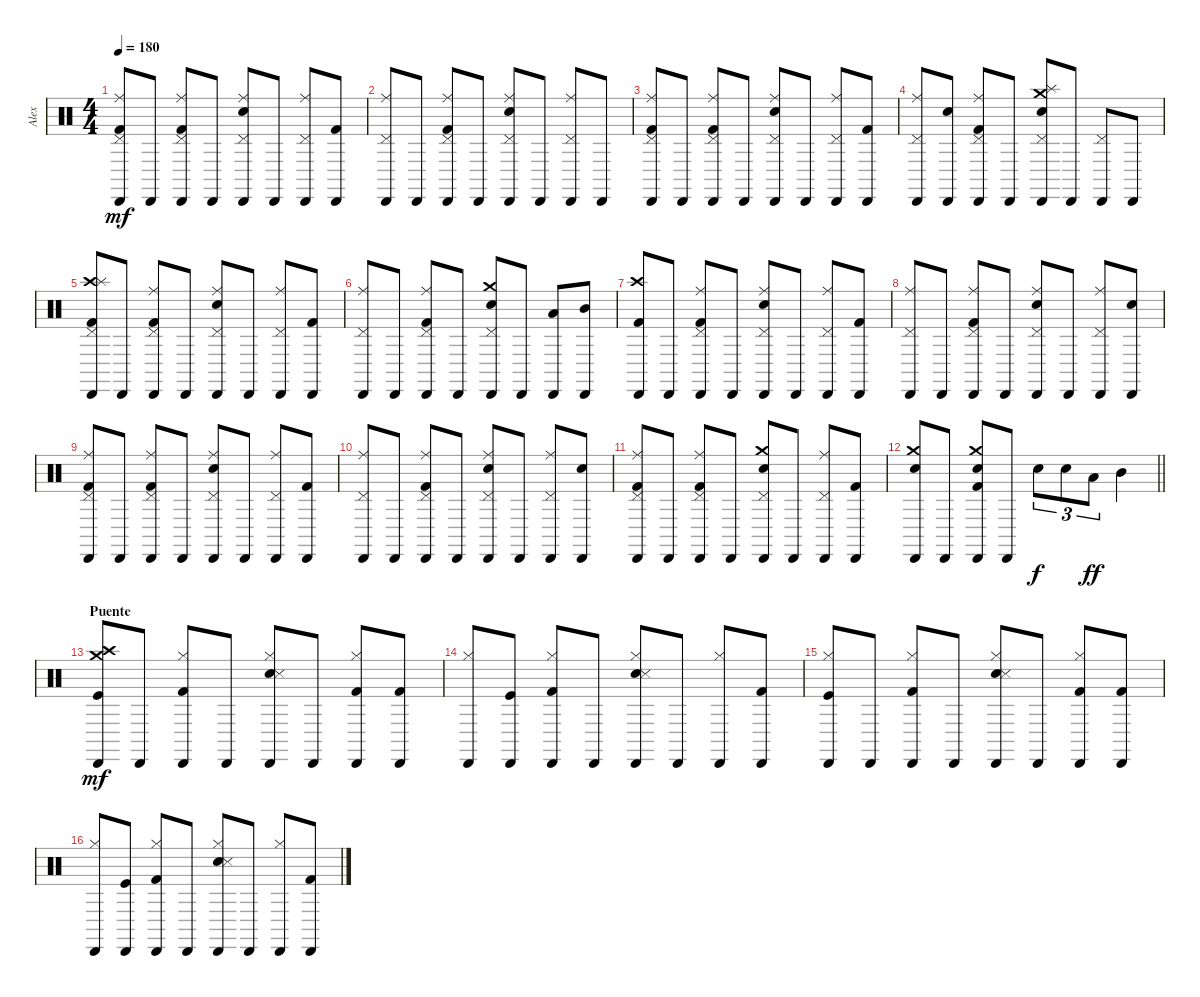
\track ("Alex" "Alex") {instrument percussion}
\staff {score}
\articulation defaults
\ts (4 4)
\tempo 180
\clef neutral
\ks c
("Ride (middle)" "Pedal Hi-Hat (hit)" "Kick (hit) 2" "Cabasa (hit)").8{dy mf} "Cabasa (hit)".8 ("Ride (middle)" "Pedal Hi-Hat (hit)" "Kick (hit) 2" "Cabasa (hit)").8 "Cabasa (hit)".8 ("Ride (middle)" "Pedal Hi-Hat (hit)" "Snare (hit) 2" "Cabasa (hit)").8 "Cabasa (hit)".8 ("Ride (middle)" "Pedal Hi-Hat (hit)" "Cabasa (hit)").8 ("Kick (hit) 2" "Cabasa (hit)").8 |
("Ride (middle)" "Pedal Hi-Hat (hit)" "Cabasa (hit)").8 "Cabasa (hit)".8 ("Ride (middle)" "Pedal Hi-Hat (hit)" "Kick (hit) 2" "Cabasa (hit)").8 "Cabasa (hit)".8 ("Ride (middle)" "Pedal Hi-Hat (hit)" "Snare (hit) 2" "Cabasa (hit)").8 "Cabasa (hit)".8 ("Ride (middle)" "Pedal Hi-Hat (hit)" "Cabasa (hit)").8 "Cabasa (hit)".8 |
("Ride (middle)" "Pedal Hi-Hat (hit)" "Kick (hit) 2" "Cabasa (hit)").8 "Cabasa (hit)".8 ("Ride (middle)" "Pedal Hi-Hat (hit)" "Kick (hit) 2" "Cabasa (hit)").8 "Cabasa (hit)".8 ("Ride (middle)" "Pedal Hi-Hat (hit)" "Snare (hit) 2" "Cabasa (hit)").8 "Cabasa (hit)".8 ("Ride (middle)" "Pedal Hi-Hat (hit)" "Cabasa (hit)").8 ("Kick (hit) 2" "Cabasa (hit)").8 |
("Ride (middle)" "Pedal Hi-Hat (hit)" "Cabasa (hit)").8 ("Snare (hit) 2" "Cabasa (hit)").8 ("Ride (middle)" "Pedal Hi-Hat (hit)" "Kick (hit) 2" "Cabasa (hit)").8 "Cabasa (hit)".8 ("Crash medium (hit)" "Pedal Hi-Hat (hit)" "Splash (hit)" "Snare (hit) 2" "Cabasa (hit)").8 "Cabasa (hit)".8 ("Pedal Hi-Hat (hit)" "Cabasa (hit)").8 "Cabasa (hit)".8 |
("Crash high (hit)" "Pedal Hi-Hat (hit)" "Splash (hit)" "Kick (hit) 2" "Cabasa (hit)").8 "Cabasa (hit)".8 ("Ride (middle)" "Pedal Hi-Hat (hit)" "Kick (hit) 2" "Cabasa (hit)").8 "Cabasa (hit)".8 ("Ride (middle)" "Pedal Hi-Hat (hit)" "Snare (hit) 2" "Cabasa (hit)").8 "Cabasa (hit)".8 ("Ride (middle)" "Pedal Hi-Hat (hit)" "Cabasa (hit)").8 ("Kick (hit) 2" "Cabasa (hit)").8 |
("Ride (middle)" "Pedal Hi-Hat (hit)" "Cabasa (hit)").8 "Cabasa (hit)".8 ("Ride (middle)" "Pedal Hi-Hat (hit)" "Kick (hit) 2" "Cabasa (hit)").8 "Cabasa (hit)".8 ("Crash medium (hit)" "Pedal Hi-Hat (hit)" "Snare (hit) 2" "Cabasa (hit)").8 "Cabasa (hit)".8 ("Low Tom (hit)" "Cabasa (hit)").8 ("Mid Tom (hit)" "Cabasa (hit)").8 |
("Crash high (hit)" "Kick (hit) 2" "Cabasa (hit)").8 "Cabasa (hit)".8 ("Ride (middle)" "Pedal Hi-Hat (hit)" "Kick (hit) 2" "Cabasa (hit)").8 "Cabasa (hit)".8 ("Ride (middle)" "Pedal Hi-Hat (hit)" "Snare (hit) 2" "Cabasa (hit)").8 "Cabasa (hit)".8 ("Ride (middle)" "Pedal Hi-Hat (hit)" "Cabasa (hit)").8 ("Kick (hit) 2" "Cabasa (hit)").8 |
("Ride (middle)" "Pedal Hi-Hat (hit)" "Cabasa (hit)").8 "Cabasa (hit)".8 ("Ride (middle)" "Pedal Hi-Hat (hit)" "Kick (hit) 2" "Cabasa (hit)").8 "Cabasa (hit)".8 ("Ride (middle)" "Pedal Hi-Hat (hit)" "Snare (hit) 2" "Cabasa (hit)").8 "Cabasa (hit)".8 ("Ride (middle)" "Pedal Hi-Hat (hit)" "Cabasa (hit)").8 ("Snare (hit) 2" "Cabasa (hit)").8 |
("Ride (middle)" "Pedal Hi-Hat (hit)" "Kick (hit) 2" "Cabasa (hit)").8 "Cabasa (hit)".8 ("Ride (middle)" "Pedal Hi-Hat (hit)" "Kick (hit) 2" "Cabasa (hit)").8 "Cabasa (hit)".8 ("Ride (middle)" "Pedal Hi-Hat (hit)" "Snare (hit) 2" "Cabasa (hit)").8 "Cabasa (hit)".8 ("Ride (middle)" "Pedal Hi-Hat (hit)" "Cabasa (hit)").8 ("Kick (hit) 2" "Cabasa (hit)").8 |
("Ride (middle)" "Pedal Hi-Hat (hit)" "Cabasa (hit)").8 "Cabasa (hit)".8 ("Ride (middle)" "Pedal Hi-Hat (hit)" "Kick (hit) 2" "Cabasa (hit)").8 "Cabasa (hit)".8 ("Ride (middle)" "Pedal Hi-Hat (hit)" "Snare (hit) 2" "Cabasa (hit)").8 "Cabasa (hit)".8 ("Ride (middle)" "Pedal Hi-Hat (hit)" "Cabasa (hit)").8 ("Snare (hit) 2" "Cabasa (hit)").8 |
("Ride (middle)" "Pedal Hi-Hat (hit)" "Kick (hit) 2" "Cabasa (hit)").8 "Cabasa (hit)".8 ("Ride (middle)" "Pedal Hi-Hat (hit)" "Kick (hit) 2" "Cabasa (hit)").8 "Cabasa (hit)".8 ("Crash medium (hit)" "Pedal Hi-Hat (hit)" "Snare (hit) 2" "Cabasa (hit)").8 "Cabasa (hit)".8 ("Ride (middle)" "Pedal Hi-Hat (hit)" "Cabasa (hit)").8 ("Kick (hit) 2" "Cabasa (hit)").8 |
\barLineRight lightlight
("Crash medium (hit)" "Snare (hit) 2" "Cabasa (hit)").8 "Cabasa (hit)".8 ("Crash medium (hit)" "Snare (hit) 2" "Kick (hit) 2" "Cabasa (hit)").8 "Cabasa (hit)".8 "Snare (hit) 2".8{tu (3 2) dy f} "Snare (hit) 2".8{tu (3 2)} "Low Tom (hit)".8{tu (3 2) dy ff} "Mid Tom (hit)".4 |
\section ("" "Puente")
("Crash medium (hit)" "Crash high (hit)" "Kick (hit)" "Cabasa (hit)").8{dy mf} "Cabasa (hit)".8 ("Hi-Hat (closed)" "Kick (hit) 2" "Cabasa (hit)").8 "Cabasa (hit)".8 ("Hi-Hat (closed)" "Hand Clap (hit)" "Snare (side stick) 3" "Cabasa (hit)").8 "Cabasa (hit)".8 ("Hi-Hat (closed)" "Kick (hit) 2" "Cabasa (hit)").8 ("Kick (hit) 2" "Cabasa (hit)").8 |
("Hi-Hat (closed)" "Cabasa (hit)").8 ("Kick (hit)" "Cabasa (hit)").8 ("Hi-Hat (closed)" "Kick (hit) 2" "Cabasa (hit)").8 "Cabasa (hit)".8 ("Hi-Hat (closed)" "Hand Clap (hit)" "Snare (side stick) 3" "Cabasa (hit)").8 "Cabasa (hit)".8 ("Hi-Hat (closed)" "Cabasa (hit)").8 ("Kick (hit) 2" "Cabasa (hit)").8 |
("Hi-Hat (closed)" "Kick (hit)" "Cabasa (hit)").8 "Cabasa (hit)".8 ("Hi-Hat (closed)" "Kick (hit) 2" "Cabasa (hit)").8 "Cabasa (hit)".8 ("Hi-Hat (closed)" "Hand Clap (hit)" "Snare (side stick) 3" "Cabasa (hit)").8 "Cabasa (hit)".8 ("Hi-Hat (closed)" "Kick (hit) 2" "Cabasa (hit)").8 ("Kick (hit) 2" "Cabasa (hit)").8 |
("Hi-Hat (closed)" "Cabasa (hit)").8 ("Kick (hit)" "Cabasa (hit)").8 ("Hi-Hat (closed)" "Kick (hit) 2" "Cabasa (hit)").8 "Cabasa (hit)".8 ("Hi-Hat (closed)" "Hand Clap (hit)" "Snare (side stick) 3" "Cabasa (hit)").8 "Cabasa (hit)".8 ("Hi-Hat (closed)" "Cabasa (hit)").8 ("Kick (hit) 2" "Cabasa (hit)").8
